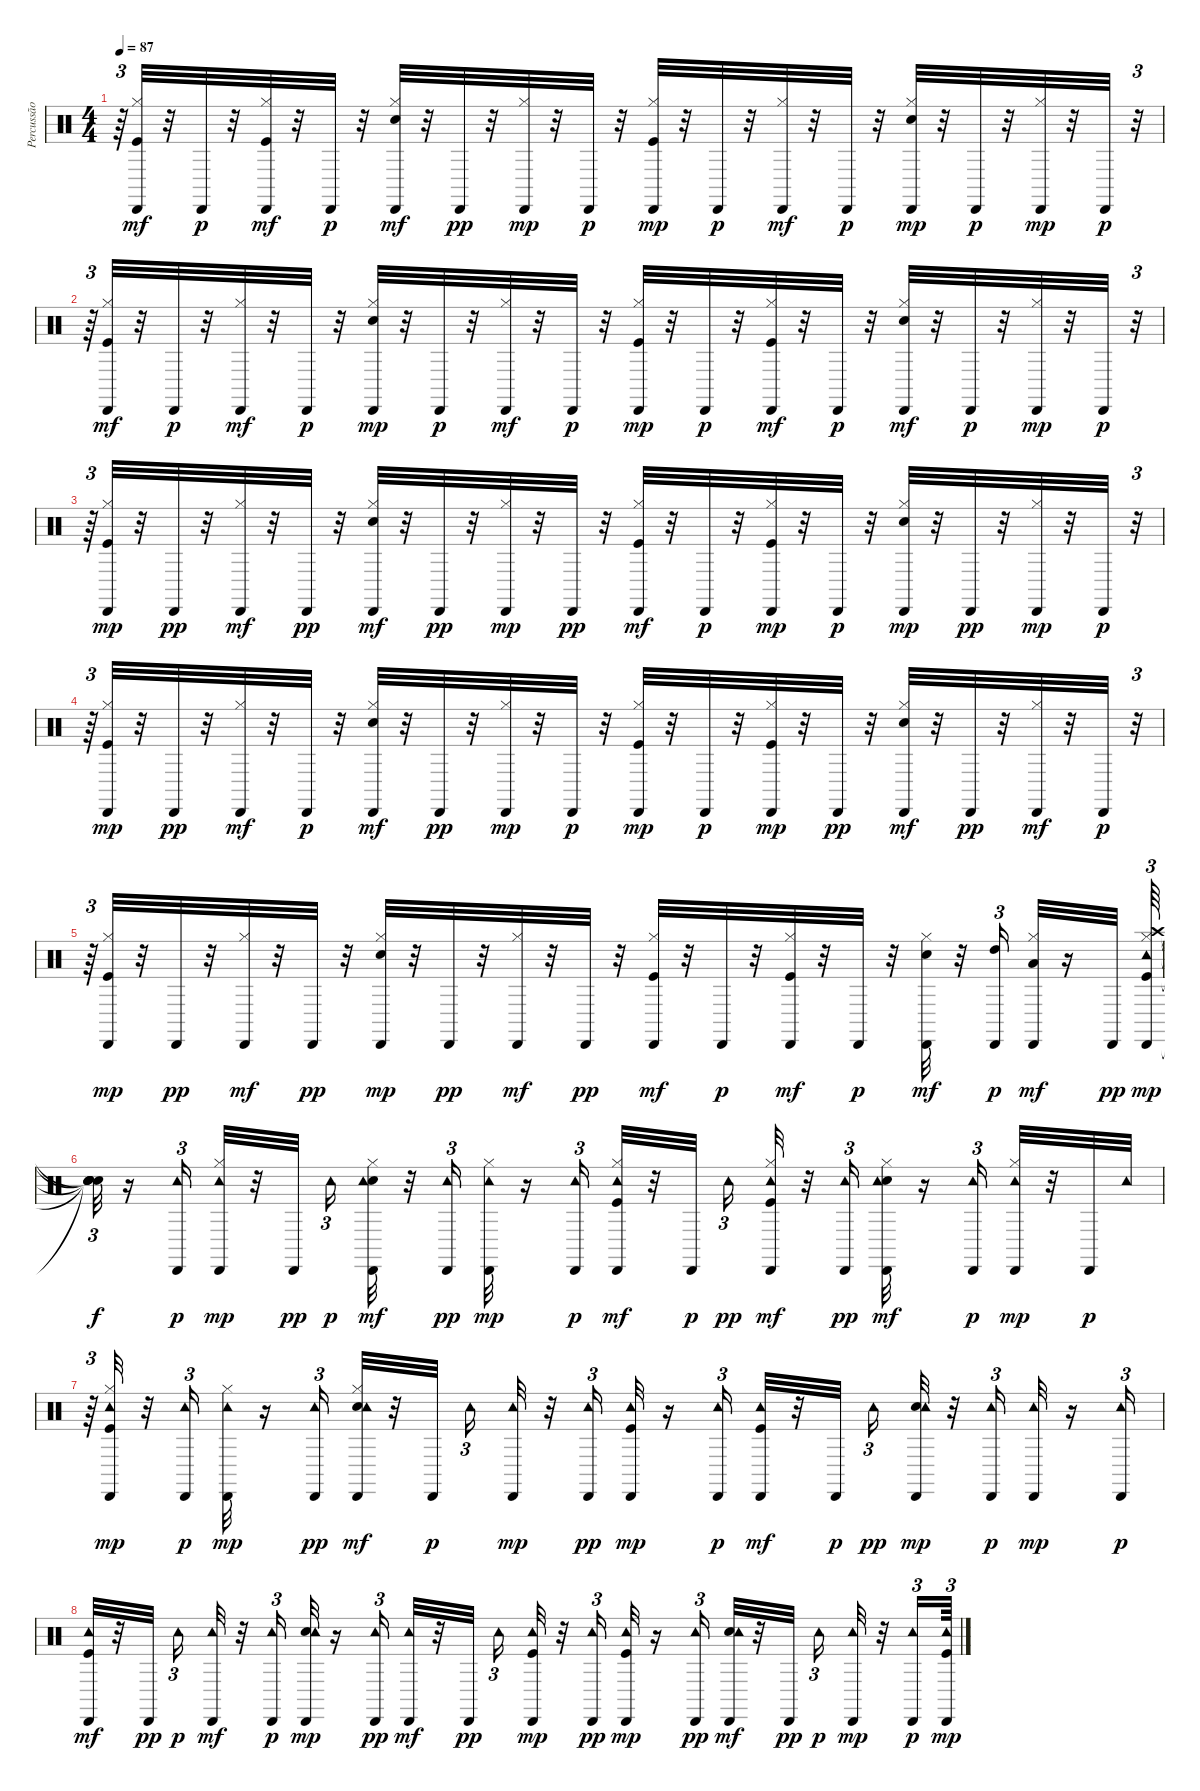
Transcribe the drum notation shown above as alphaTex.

\track ("Percussão" "Percussão") {instrument percussion}
\staff {score}
\articulation defaults
\ts (4 4)
\tempo 87
\clef neutral
\ks c
r.64{tu (3 2) dy pp} ("Kick (hit)" "Hi-Hat (closed)" "Cabasa (hit)").32{dy mf} r.32 "Cabasa (hit)".32{dy p} r.32 ("Kick (hit)" "Hi-Hat (closed)" "Cabasa (hit)").32{dy mf} r.32 "Cabasa (hit)".32{dy p} r.32 ("Electric Snare (hit)" "Hi-Hat (closed)" "Cabasa (hit)").32{dy mf} r.32 "Cabasa (hit)".32{dy pp} r.32 ("Hi-Hat (closed)" "Cabasa (hit)").32{dy mp} r.32 "Cabasa (hit)".32{dy p} r.32 ("Kick (hit)" "Hi-Hat (closed)" "Cabasa (hit)").32{dy mp} r.32 "Cabasa (hit)".32{dy p} r.32 ("Hi-Hat (closed)" "Cabasa (hit)").32{dy mf} r.32 "Cabasa (hit)".32{dy p} r.32 ("Electric Snare (hit)" "Hi-Hat (closed)" "Cabasa (hit)").32{dy mp} r.32 "Cabasa (hit)".32{dy p} r.32 ("Hi-Hat (closed)" "Cabasa (hit)").32{dy mp} r.32 "Cabasa (hit)".32{dy p} r.32{tu (3 2)} |
r.64{tu (3 2)} ("Kick (hit)" "Hi-Hat (closed)" "Cabasa (hit)").32{dy mf} r.32 "Cabasa (hit)".32{dy p} r.32 ("Hi-Hat (closed)" "Cabasa (hit)").32{dy mf} r.32 "Cabasa (hit)".32{dy p} r.32 ("Electric Snare (hit)" "Hi-Hat (closed)" "Cabasa (hit)").32{dy mp} r.32 "Cabasa (hit)".32{dy p} r.32 ("Hi-Hat (closed)" "Cabasa (hit)").32{dy mf} r.32 "Cabasa (hit)".32{dy p} r.32 ("Kick (hit)" "Hi-Hat (closed)" "Cabasa (hit)").32{dy mp} r.32 "Cabasa (hit)".32{dy p} r.32 ("Kick (hit)" "Hi-Hat (closed)" "Cabasa (hit)").32{dy mf} r.32 "Cabasa (hit)".32{dy p} r.32 ("Electric Snare (hit)" "Hi-Hat (closed)" "Cabasa (hit)").32{dy mf} r.32 "Cabasa (hit)".32{dy p} r.32 ("Hi-Hat (closed)" "Cabasa (hit)").32{dy mp} r.32 "Cabasa (hit)".32{dy p} r.32{tu (3 2)} |
r.64{tu (3 2)} ("Kick (hit)" "Hi-Hat (closed)" "Cabasa (hit)").32{dy mp} r.32 "Cabasa (hit)".32{dy pp} r.32 ("Hi-Hat (closed)" "Cabasa (hit)").32{dy mf} r.32 "Cabasa (hit)".32{dy pp} r.32 ("Electric Snare (hit)" "Hi-Hat (closed)" "Cabasa (hit)").32{dy mf} r.32 "Cabasa (hit)".32{dy pp} r.32 ("Hi-Hat (closed)" "Cabasa (hit)").32{dy mp} r.32 "Cabasa (hit)".32{dy pp} r.32 ("Kick (hit)" "Hi-Hat (closed)" "Cabasa (hit)").32{dy mf} r.32 "Cabasa (hit)".32{dy p} r.32 ("Kick (hit)" "Hi-Hat (closed)" "Cabasa (hit)").32{dy mp} r.32 "Cabasa (hit)".32{dy p} r.32 ("Electric Snare (hit)" "Hi-Hat (closed)" "Cabasa (hit)").32{dy mp} r.32 "Cabasa (hit)".32{dy pp} r.32 ("Hi-Hat (closed)" "Cabasa (hit)").32{dy mp} r.32 "Cabasa (hit)".32{dy p} r.32{tu (3 2)} |
r.64{tu (3 2)} ("Kick (hit)" "Hi-Hat (closed)" "Cabasa (hit)").32{dy mp} r.32 "Cabasa (hit)".32{dy pp} r.32 ("Hi-Hat (closed)" "Cabasa (hit)").32{dy mf} r.32 "Cabasa (hit)".32{dy p} r.32 ("Electric Snare (hit)" "Hi-Hat (closed)" "Cabasa (hit)").32{dy mf} r.32 "Cabasa (hit)".32{dy pp} r.32 ("Hi-Hat (closed)" "Cabasa (hit)").32{dy mp} r.32 "Cabasa (hit)".32{dy p} r.32 ("Kick (hit)" "Hi-Hat (closed)" "Cabasa (hit)").32{dy mp} r.32 "Cabasa (hit)".32{dy p} r.32 ("Kick (hit)" "Hi-Hat (closed)" "Cabasa (hit)").32{dy mp} r.32 "Cabasa (hit)".32{dy pp} r.32 ("Electric Snare (hit)" "Hi-Hat (closed)" "Cabasa (hit)").32{dy mf} r.32 "Cabasa (hit)".32{dy pp} r.32 ("Hi-Hat (closed)" "Cabasa (hit)").32{dy mf} r.32 "Cabasa (hit)".32{dy p} r.32{tu (3 2)} |
r.64{tu (3 2)} ("Kick (hit)" "Hi-Hat (closed)" "Cabasa (hit)").32{dy mp} r.32 "Cabasa (hit)".32{dy pp} r.32 ("Hi-Hat (closed)" "Cabasa (hit)").32{dy mf} r.32 "Cabasa (hit)".32{dy pp} r.32 ("Electric Snare (hit)" "Hi-Hat (closed)" "Cabasa (hit)").32{dy mp} r.32 "Cabasa (hit)".32{dy pp} r.32 ("Hi-Hat (closed)" "Cabasa (hit)").32{dy mf} r.32 "Cabasa (hit)".32{dy pp} r.32 ("Kick (hit)" "Hi-Hat (closed)" "Cabasa (hit)").32{dy mf} r.32 "Cabasa (hit)".32{dy p} r.32 ("Kick (hit)" "Hi-Hat (closed)" "Cabasa (hit)").32{dy mf} r.32 "Cabasa (hit)".32{dy p} r.32 ("Electric Snare (hit)" "Hi-Hat (closed)" "Cabasa (hit)").32{dy mf} r.32 ("Cabasa (hit)" "High Tom (hit)").16{tu (3 2) dy p} ("Hi-Hat (closed)" "Low Tom (hit)" "Cabasa (hit)").32{dy mf} r.16 "Cabasa (hit)".32{dy pp} ("Kick (hit)" "Hi-Hat (closed)" "Crash high (hit)" "Tambourine (hit)" "Cabasa (hit)").64{tu (3 2) dy mp} |
("Snare (hit)"{t} "Snare (hit)"{t} "Snare (hit)"{t} "Snare (hit)"{t} "Snare (hit)"{t}).32{tu (3 2) dy f} r.16 ("Cabasa (hit)" "Tambourine (hit)").16{tu (3 2) dy p} ("Hi-Hat (closed)" "Tambourine (hit)" "Cabasa (hit)").32{dy mp} r.32 "Cabasa (hit)".32{dy pp} "Tambourine (hit)".16{tu (3 2) dy p} ("Electric Snare (hit)" "Hi-Hat (closed)" "Tambourine (hit)" "Cabasa (hit)").32{dy mf} r.32 ("Cabasa (hit)" "Tambourine (hit)").16{tu (3 2) dy pp} ("Hi-Hat (closed)" "Tambourine (hit)" "Cabasa (hit)").32{dy mp} r.16 ("Cabasa (hit)" "Tambourine (hit)").16{tu (3 2) dy p} ("Kick (hit)" "Hi-Hat (closed)" "Tambourine (hit)" "Cabasa (hit)").32{dy mf} r.32 "Cabasa (hit)".32{dy p beam splitsecondary} "Tambourine (hit)".16{tu (3 2) dy pp} ("Kick (hit)" "Hi-Hat (closed)" "Tambourine (hit)" "Cabasa (hit)").32{dy mf} r.32 ("Cabasa (hit)" "Tambourine (hit)").16{tu (3 2) dy pp} ("Electric Snare (hit)" "Hi-Hat (closed)" "Tambourine (hit)" "Cabasa (hit)").32{dy mf} r.16 ("Cabasa (hit)" "Tambourine (hit)").16{tu (3 2) dy p} ("Hi-Hat (closed)" "Tambourine (hit)" "Cabasa (hit)").32{dy mp} r.32 "Cabasa (hit)".32{dy p} "Tambourine (hit)".32 |
r.64{tu (3 2)} ("Kick (hit)" "Hi-Hat (closed)" "Tambourine (hit)" "Cabasa (hit)").32{dy mp} r.32 ("Cabasa (hit)" "Tambourine (hit)").16{tu (3 2) dy p} ("Hi-Hat (closed)" "Tambourine (hit)" "Cabasa (hit)").32{dy mp} r.16 ("Cabasa (hit)" "Tambourine (hit)").16{tu (3 2) dy pp} ("Electric Snare (hit)" "Hi-Hat (closed)" "Tambourine (hit)" "Cabasa (hit)").32{dy mf} r.32 "Cabasa (hit)".32{dy p beam splitsecondary} "Tambourine (hit)".16{tu (3 2)} ("Tambourine (hit)" "Cabasa (hit)").32{dy mp} r.32 ("Cabasa (hit)" "Tambourine (hit)").16{tu (3 2) dy pp} ("Kick (hit)" "Tambourine (hit)" "Cabasa (hit)").32{dy mp} r.16 ("Cabasa (hit)" "Tambourine (hit)").16{tu (3 2) dy p} ("Kick (hit)" "Tambourine (hit)" "Cabasa (hit)").32{dy mf} r.32 "Cabasa (hit)".32{dy p} "Tambourine (hit)".16{tu (3 2) dy pp} ("Electric Snare (hit)" "Tambourine (hit)" "Cabasa (hit)").32{dy mp} r.32 ("Cabasa (hit)" "Tambourine (hit)").16{tu (3 2) dy p} ("Tambourine (hit)" "Cabasa (hit)").32{dy mp} r.16 ("Cabasa (hit)" "Tambourine (hit)").16{tu (3 2) dy p} |
("Kick (hit)" "Tambourine (hit)" "Cabasa (hit)").32{dy mf} r.32 "Cabasa (hit)".32{dy pp beam splitsecondary} "Tambourine (hit)".16{tu (3 2) dy p} ("Tambourine (hit)" "Cabasa (hit)").32{dy mf} r.32 ("Cabasa (hit)" "Tambourine (hit)").16{tu (3 2) dy p} ("Electric Snare (hit)" "Tambourine (hit)" "Cabasa (hit)").32{dy mp} r.16 ("Cabasa (hit)" "Tambourine (hit)").16{tu (3 2) dy pp} ("Tambourine (hit)" "Cabasa (hit)").32{dy mf} r.32 "Cabasa (hit)".32{dy pp} "Tambourine (hit)".16{tu (3 2)} ("Kick (hit)" "Tambourine (hit)" "Cabasa (hit)").32{dy mp} r.32 ("Cabasa (hit)" "Tambourine (hit)").16{tu (3 2) dy pp} ("Kick (hit)" "Tambourine (hit)" "Cabasa (hit)").32{dy mp} r.16 ("Cabasa (hit)" "Tambourine (hit)").16{tu (3 2) dy pp} ("Electric Snare (hit)" "Tambourine (hit)" "Cabasa (hit)").32{dy mf} r.32 "Cabasa (hit)".32{dy pp beam splitsecondary} "Tambourine (hit)".16{tu (3 2) dy p} ("Tambourine (hit)" "Cabasa (hit)").32{dy mp} r.32 ("Cabasa (hit)" "Tambourine (hit)").16{tu (3 2) dy p} ("Kick (hit)" "Tambourine (hit)" "Cabasa (hit)").64{tu (3 2) dy mp}
